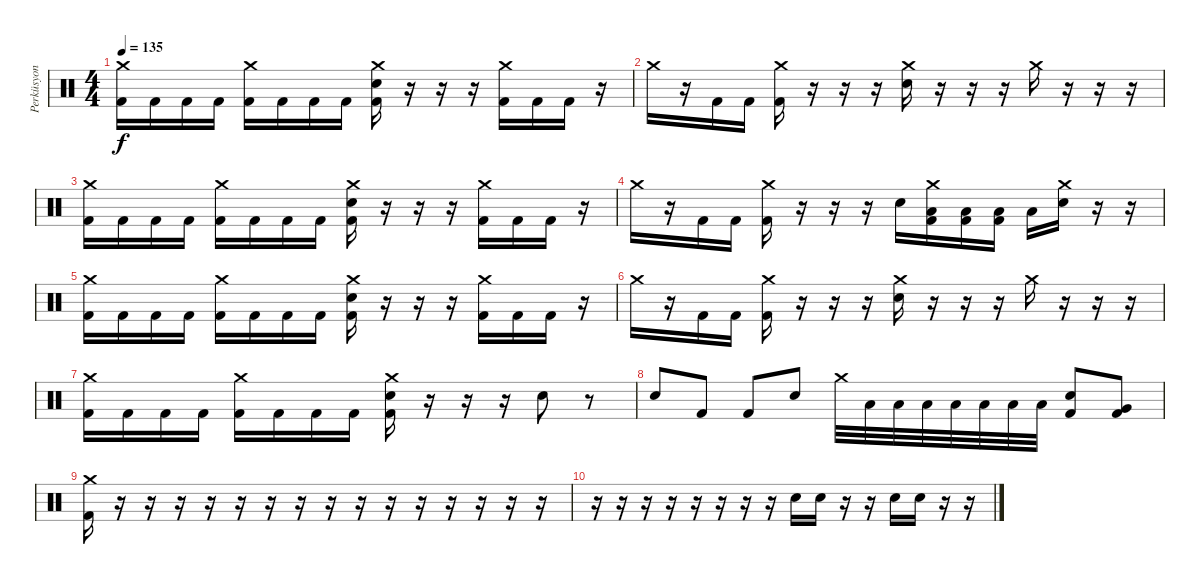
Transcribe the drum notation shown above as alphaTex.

\track ("Perküsyon" "Perküsyon") {instrument percussion}
\staff {score}
\articulation defaults
\ts (4 4)
\tempo 135
\clef neutral
\ks c
("Crash medium (hit)" "Kick (hit) 2").16{dy f} "Kick (hit) 2".16 "Kick (hit) 2".16 "Kick (hit) 2".16 ("Crash medium (hit)" "Kick (hit) 2").16 "Kick (hit) 2".16 "Kick (hit) 2".16 "Kick (hit) 2".16 ("Crash medium (hit)" "Electric Snare (hit)" "Kick (hit) 2").16 r.16 r.16 r.16 ("Crash medium (hit)" "Kick (hit) 2").16 "Kick (hit) 2".16 "Kick (hit) 2".16 r.16 |
"Crash medium (hit)".16 r.16 "Kick (hit) 2".16 "Kick (hit) 2".16 ("Crash medium (hit)" "Kick (hit) 2").16 r.16 r.16 r.16 ("Crash medium (hit)" "Electric Snare (hit)").16 r.16 r.16 r.16 "Crash medium (hit)".16 r.16 r.16 r.16 |
("Crash medium (hit)" "Kick (hit) 2").16 "Kick (hit) 2".16 "Kick (hit) 2".16 "Kick (hit) 2".16 ("Crash medium (hit)" "Kick (hit) 2").16 "Kick (hit) 2".16 "Kick (hit) 2".16 "Kick (hit) 2".16 ("Crash medium (hit)" "Electric Snare (hit)" "Kick (hit) 2").16 r.16 r.16 r.16 ("Crash medium (hit)" "Kick (hit) 2").16 "Kick (hit) 2".16 "Kick (hit) 2".16 r.16 |
"Crash medium (hit)".16 r.16 "Kick (hit) 2".16 "Kick (hit) 2".16 ("Crash medium (hit)" "Kick (hit) 2").16 r.16 r.16 r.16 "Electric Snare (hit)".16 ("Crash medium (hit)" "Low Tom (hit)" "Kick (hit) 2").16 ("Low Tom (hit)" "Kick (hit) 2").16 ("Low Tom (hit)" "Kick (hit) 2").16 "Low Tom (hit)".16 ("Crash medium (hit)" "Electric Snare (hit)").16 r.16 r.16 |
("Crash medium (hit)" "Kick (hit) 2").16 "Kick (hit) 2".16 "Kick (hit) 2".16 "Kick (hit) 2".16 ("Crash medium (hit)" "Kick (hit) 2").16 "Kick (hit) 2".16 "Kick (hit) 2".16 "Kick (hit) 2".16 ("Crash medium (hit)" "Electric Snare (hit)" "Kick (hit) 2").16 r.16 r.16 r.16 ("Crash medium (hit)" "Kick (hit) 2").16 "Kick (hit) 2".16 "Kick (hit) 2".16 r.16 |
"Crash medium (hit)".16 r.16 "Kick (hit) 2".16 "Kick (hit) 2".16 ("Crash medium (hit)" "Kick (hit) 2").16 r.16 r.16 r.16 ("Crash medium (hit)" "Electric Snare (hit)").16 r.16 r.16 r.16 "Crash medium (hit)".16 r.16 r.16 r.16 |
("Crash medium (hit)" "Kick (hit) 2").16 "Kick (hit) 2".16 "Kick (hit) 2".16 "Kick (hit) 2".16 ("Crash medium (hit)" "Kick (hit) 2").16 "Kick (hit) 2".16 "Kick (hit) 2".16 "Kick (hit) 2".16 ("Crash medium (hit)" "Electric Snare (hit)" "Kick (hit) 2").16 r.16 r.16 r.16 "Electric Snare (hit)".8 r.8 |
"Electric Snare (hit)".8 "Kick (hit) 2".8 "Kick (hit) 2".8 "Electric Snare (hit)".8 "Crash medium (hit)".32 "Low Tom (hit)".32 "Low Tom (hit)".32 "Low Tom (hit)".32 "Low Tom (hit)".32 "Low Tom (hit)".32 "Low Tom (hit)".32 "Low Tom (hit)".32 ("Electric Snare (hit)" "Kick (hit) 2").8 ("Very Low Tom (hit)" "Kick (hit) 2").8 |
("Crash medium (hit)" "Kick (hit) 2").16 r.16 r.16 r.16 r.16 r.16 r.16 r.16 r.16 r.16 r.16 r.16 r.16 r.16 r.16 r.16 |
r.16 r.16 r.16 r.16 r.16 r.16 r.16 r.16 "Electric Snare (hit)".16 "Electric Snare (hit)".16 r.16 r.16 "Electric Snare (hit)".16 "Electric Snare (hit)".16 r.16 r.16
